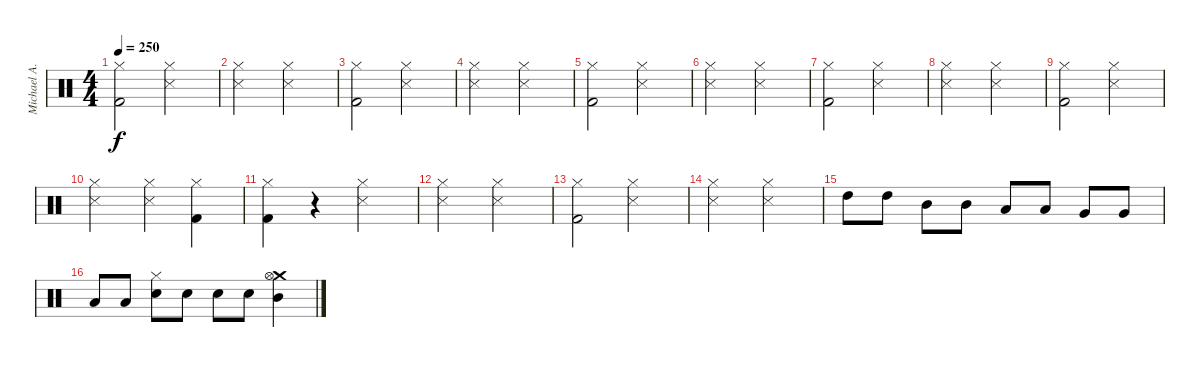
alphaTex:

\track ("Michael A." "Michael A.") {instrument percussion}
\staff {score}
\articulation defaults
\ts (4 4)
\tempo 250
\clef neutral
\ks c
("Hi-Hat (closed)" "Kick (hit) 2").2{dy f} ("Hi-Hat (closed)" "Snare (side stick) 3").2 |
("Hi-Hat (closed)" "Snare (side stick) 3").2 ("Hi-Hat (closed)" "Snare (side stick) 3").2 |
("Hi-Hat (closed)" "Kick (hit) 2").2 ("Hi-Hat (closed)" "Snare (side stick) 3").2 |
("Hi-Hat (closed)" "Snare (side stick) 3").2 ("Hi-Hat (closed)" "Snare (side stick) 3").2 |
("Hi-Hat (closed)" "Kick (hit) 2").2 ("Hi-Hat (closed)" "Snare (side stick) 3").2 |
("Hi-Hat (closed)" "Snare (side stick) 3").2 ("Hi-Hat (closed)" "Snare (side stick) 3").2 |
("Hi-Hat (closed)" "Kick (hit) 2").2 ("Hi-Hat (closed)" "Snare (side stick) 3").2 |
("Hi-Hat (closed)" "Snare (side stick) 3").2 ("Hi-Hat (closed)" "Snare (side stick) 3").2 |
("Hi-Hat (closed)" "Kick (hit) 2").2 ("Hi-Hat (closed)" "Snare (side stick) 3").2 |
("Hi-Hat (closed)" "Snare (side stick) 3").2 ("Hi-Hat (closed)" "Snare (side stick) 3").4 ("Hi-Hat (closed)" "Kick (hit) 2").4 |
("Hi-Hat (closed)" "Kick (hit) 2").4 r.4 ("Hi-Hat (closed)" "Snare (side stick) 3").2 |
("Hi-Hat (closed)" "Snare (side stick) 3").2 ("Hi-Hat (closed)" "Snare (side stick) 3").2 |
("Hi-Hat (closed)" "Kick (hit) 2").2 ("Hi-Hat (closed)" "Snare (side stick) 3").2 |
("Hi-Hat (closed)" "Snare (side stick) 3").2 ("Hi-Hat (closed)" "Snare (side stick) 3").2 |
"High Tom (hit)".8 "High Tom (hit)".8 "Mid Tom (hit)".8 "Mid Tom (hit)".8 "Low Tom (hit)".8 "Low Tom (hit)".8 "Very Low Tom (hit)".8 "Very Low Tom (hit)".8 |
"Low Floor Tom (hit)".8 "Low Floor Tom (hit)".8 ("Hi-Hat (closed)" "Electric Snare (hit)").8 "Electric Snare (hit)".8 "Electric Snare (hit)".8 "Electric Snare (hit)".8 ("Crash medium (hit)" "Hi-Hat (open)" "Mid Tom (hit)").4
